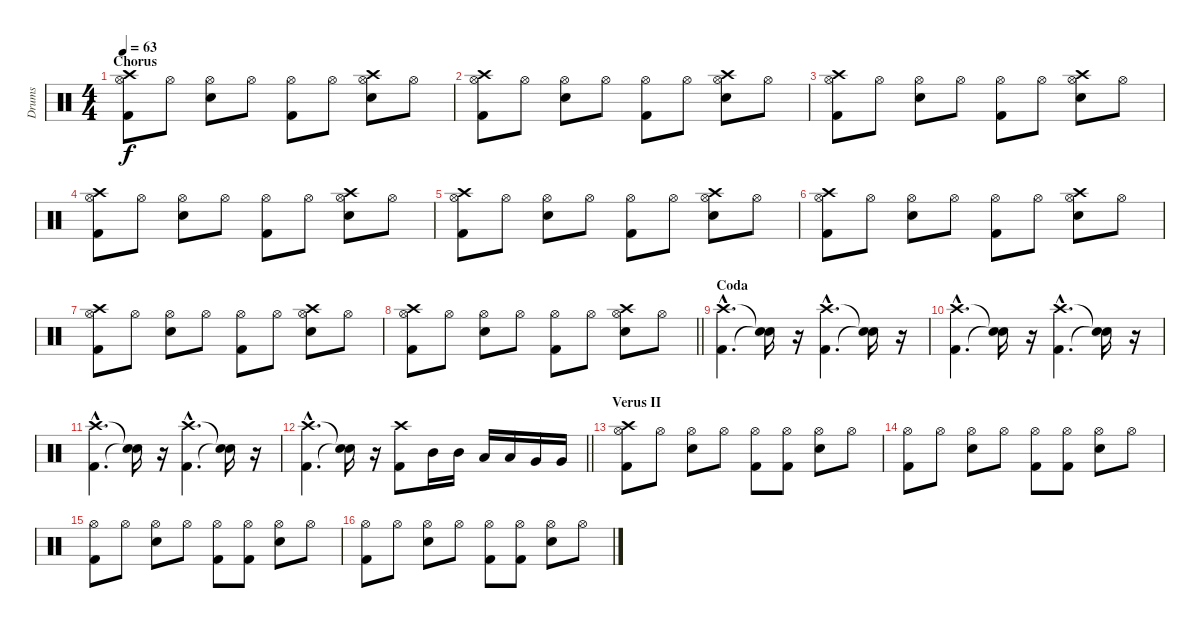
\track ("Drums" "Drums") {instrument percussion}
\staff {score}
\articulation defaults
\ts (4 4)
\section ("" "Chorus")
\tempo 63
\clef neutral
\ks c
("Kick (hit) 2" "Crash high (hit)" "Hi-Hat (open)").8{dy f} "Hi-Hat (open)".8 ("Electric Snare (hit)" "Hi-Hat (open)").8 "Hi-Hat (open)".8 ("Kick (hit) 2" "Hi-Hat (open)").8 "Hi-Hat (open)".8 ("Electric Snare (hit)" "Crash high (hit)" "Hi-Hat (open)").8 "Hi-Hat (open)".8 |
("Kick (hit) 2" "Crash high (hit)" "Hi-Hat (open)").8 "Hi-Hat (open)".8 ("Electric Snare (hit)" "Hi-Hat (open)").8 "Hi-Hat (open)".8 ("Kick (hit) 2" "Hi-Hat (open)").8 "Hi-Hat (open)".8 ("Electric Snare (hit)" "Crash high (hit)" "Hi-Hat (open)").8 "Hi-Hat (open)".8 |
("Kick (hit) 2" "Crash high (hit)" "Hi-Hat (open)").8 "Hi-Hat (open)".8 ("Electric Snare (hit)" "Hi-Hat (open)").8 "Hi-Hat (open)".8 ("Kick (hit) 2" "Hi-Hat (open)").8 "Hi-Hat (open)".8 ("Electric Snare (hit)" "Crash high (hit)" "Hi-Hat (open)").8 "Hi-Hat (open)".8 |
("Kick (hit) 2" "Crash high (hit)" "Hi-Hat (open)").8 "Hi-Hat (open)".8 ("Electric Snare (hit)" "Hi-Hat (open)").8 "Hi-Hat (open)".8 ("Kick (hit) 2" "Hi-Hat (open)").8 "Hi-Hat (open)".8 ("Electric Snare (hit)" "Crash high (hit)" "Hi-Hat (open)").8 "Hi-Hat (open)".8 |
("Kick (hit) 2" "Crash high (hit)" "Hi-Hat (open)").8 "Hi-Hat (open)".8 ("Electric Snare (hit)" "Hi-Hat (open)").8 "Hi-Hat (open)".8 ("Kick (hit) 2" "Hi-Hat (open)").8 "Hi-Hat (open)".8 ("Electric Snare (hit)" "Crash high (hit)" "Hi-Hat (open)").8 "Hi-Hat (open)".8 |
("Kick (hit) 2" "Crash high (hit)" "Hi-Hat (open)").8 "Hi-Hat (open)".8 ("Electric Snare (hit)" "Hi-Hat (open)").8 "Hi-Hat (open)".8 ("Kick (hit) 2" "Hi-Hat (open)").8 "Hi-Hat (open)".8 ("Electric Snare (hit)" "Crash high (hit)" "Hi-Hat (open)").8 "Hi-Hat (open)".8 |
("Kick (hit) 2" "Crash high (hit)" "Hi-Hat (open)").8 "Hi-Hat (open)".8 ("Electric Snare (hit)" "Hi-Hat (open)").8 "Hi-Hat (open)".8 ("Kick (hit) 2" "Hi-Hat (open)").8 "Hi-Hat (open)".8 ("Electric Snare (hit)" "Crash high (hit)" "Hi-Hat (open)").8 "Hi-Hat (open)".8 |
\barLineRight lightlight
("Kick (hit) 2" "Crash high (hit)" "Hi-Hat (open)").8 "Hi-Hat (open)".8 ("Electric Snare (hit)" "Hi-Hat (open)").8 "Hi-Hat (open)".8 ("Kick (hit) 2" "Hi-Hat (open)").8 "Hi-Hat (open)".8 ("Electric Snare (hit)" "Crash high (hit)" "Hi-Hat (open)").8 "Hi-Hat (open)".8 |
\section ("" "Coda")
("Kick (hit) 2"{hac} "Crash high (hit)"{hac}).4{d} ("Snare (hit)"{t} "Snare (hit)"{t}).16 r.16 ("Kick (hit) 2"{hac} "Crash high (hit)"{hac}).4{d} ("Snare (hit)"{t} "Snare (hit)"{t}).16 r.16 |
("Kick (hit) 2"{hac} "Crash high (hit)"{hac}).4{d} ("Snare (hit)"{t} "Snare (hit)"{t}).16 r.16 ("Kick (hit) 2"{hac} "Crash high (hit)"{hac}).4{d} ("Snare (hit)"{t} "Snare (hit)"{t}).16 r.16 |
("Kick (hit) 2"{hac} "Crash high (hit)"{hac}).4{d} ("Snare (hit)"{t} "Snare (hit)"{t}).16 r.16 ("Kick (hit) 2"{hac} "Crash high (hit)"{hac}).4{d} ("Snare (hit)"{t} "Snare (hit)"{t}).16 r.16 |
\barLineRight lightlight
("Kick (hit) 2"{hac} "Crash high (hit)"{hac}).4{d} ("Snare (hit)"{t} "Snare (hit)"{t}).16 r.16 ("Kick (hit) 2" "Crash high (hit)").8 "Mid Tom (hit)".16 "Mid Tom (hit)".16 "Low Tom (hit)".16 "Low Tom (hit)".16 "Very Low Tom (hit)".16 "Very Low Tom (hit)".16 |
\section ("" "Verus II")
("Kick (hit) 2" "Crash high (hit)" "Hi-Hat (open)").8 "Hi-Hat (open)".8 ("Electric Snare (hit)" "Hi-Hat (open)").8 "Hi-Hat (open)".8 ("Kick (hit) 2" "Hi-Hat (open)").8 ("Kick (hit) 2" "Hi-Hat (open)").8 ("Electric Snare (hit)" "Hi-Hat (open)").8 "Hi-Hat (open)".8 |
("Kick (hit) 2" "Hi-Hat (open)").8 "Hi-Hat (open)".8 ("Electric Snare (hit)" "Hi-Hat (open)").8 "Hi-Hat (open)".8 ("Kick (hit) 2" "Hi-Hat (open)").8 ("Kick (hit) 2" "Hi-Hat (open)").8 ("Electric Snare (hit)" "Hi-Hat (open)").8 "Hi-Hat (open)".8 |
("Kick (hit) 2" "Hi-Hat (open)").8 "Hi-Hat (open)".8 ("Electric Snare (hit)" "Hi-Hat (open)").8 "Hi-Hat (open)".8 ("Kick (hit) 2" "Hi-Hat (open)").8 ("Kick (hit) 2" "Hi-Hat (open)").8 ("Electric Snare (hit)" "Hi-Hat (open)").8 "Hi-Hat (open)".8 |
("Kick (hit) 2" "Hi-Hat (open)").8 "Hi-Hat (open)".8 ("Electric Snare (hit)" "Hi-Hat (open)").8 "Hi-Hat (open)".8 ("Kick (hit) 2" "Hi-Hat (open)").8 ("Kick (hit) 2" "Hi-Hat (open)").8 ("Electric Snare (hit)" "Hi-Hat (open)").8 "Hi-Hat (open)".8
